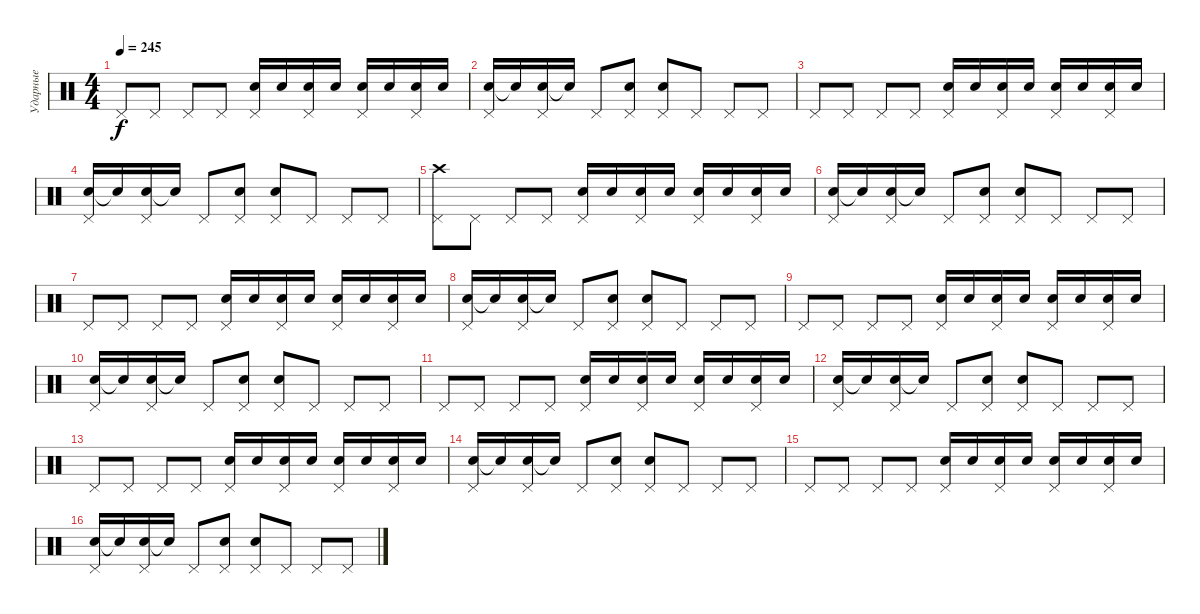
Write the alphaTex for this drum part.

\track ("Ударные" "Ударные") {instrument percussion}
\staff {score}
\articulation defaults
\ts (4 4)
\tempo 245
\clef neutral
\ks c "Pedal Hi-Hat (hit)".8{dy f} "Pedal Hi-Hat (hit)".8 "Pedal Hi-Hat (hit)".8 "Pedal Hi-Hat (hit)".8
("Electric Snare (hit)" "Pedal Hi-Hat (hit)").16 "Electric Snare (hit)".16 ("Electric Snare (hit)" "Pedal Hi-Hat (hit)").16 "Electric Snare (hit)".16 ("Electric Snare (hit)" "Pedal Hi-Hat (hit)").16 "Electric Snare (hit)".16 ("Electric Snare (hit)" "Pedal Hi-Hat (hit)").16 "Electric Snare (hit)".16 |
("Electric Snare (hit)" "Pedal Hi-Hat (hit)").16 "Snare (hit)"{t}.16 ("Electric Snare (hit)" "Pedal Hi-Hat (hit)").16 "Snare (hit)"{t}.16 "Pedal Hi-Hat (hit)".8 ("Electric Snare (hit)" "Pedal Hi-Hat (hit)").8 ("Electric Snare (hit)" "Pedal Hi-Hat (hit)").8 "Pedal Hi-Hat (hit)".8 "Pedal Hi-Hat (hit)".8 "Pedal Hi-Hat (hit)".8 |
"Pedal Hi-Hat (hit)".8 "Pedal Hi-Hat (hit)".8 "Pedal Hi-Hat (hit)".8 "Pedal Hi-Hat (hit)".8 ("Electric Snare (hit)" "Pedal Hi-Hat (hit)").16 "Electric Snare (hit)".16 ("Electric Snare (hit)" "Pedal Hi-Hat (hit)").16 "Electric Snare (hit)".16 ("Electric Snare (hit)" "Pedal Hi-Hat (hit)").16 "Electric Snare (hit)".16 ("Electric Snare (hit)" "Pedal Hi-Hat (hit)").16 "Electric Snare (hit)".16 |
("Electric Snare (hit)" "Pedal Hi-Hat (hit)").16 "Snare (hit)"{t}.16 ("Electric Snare (hit)" "Pedal Hi-Hat (hit)").16 "Snare (hit)"{t}.16 "Pedal Hi-Hat (hit)".8 ("Electric Snare (hit)" "Pedal Hi-Hat (hit)").8 ("Electric Snare (hit)" "Pedal Hi-Hat (hit)").8 "Pedal Hi-Hat (hit)".8 "Pedal Hi-Hat (hit)".8 "Pedal Hi-Hat (hit)".8 |
("Crash high (hit)" "Pedal Hi-Hat (hit)").8 "Pedal Hi-Hat (hit)".8 "Pedal Hi-Hat (hit)".8 "Pedal Hi-Hat (hit)".8 ("Electric Snare (hit)" "Pedal Hi-Hat (hit)").16 "Electric Snare (hit)".16 ("Electric Snare (hit)" "Pedal Hi-Hat (hit)").16 "Electric Snare (hit)".16 ("Electric Snare (hit)" "Pedal Hi-Hat (hit)").16 "Electric Snare (hit)".16 ("Electric Snare (hit)" "Pedal Hi-Hat (hit)").16 "Electric Snare (hit)".16 |
("Electric Snare (hit)" "Pedal Hi-Hat (hit)").16 "Snare (hit)"{t}.16 ("Electric Snare (hit)" "Pedal Hi-Hat (hit)").16 "Snare (hit)"{t}.16 "Pedal Hi-Hat (hit)".8 ("Electric Snare (hit)" "Pedal Hi-Hat (hit)").8 ("Electric Snare (hit)" "Pedal Hi-Hat (hit)").8 "Pedal Hi-Hat (hit)".8 "Pedal Hi-Hat (hit)".8 "Pedal Hi-Hat (hit)".8 |
"Pedal Hi-Hat (hit)".8 "Pedal Hi-Hat (hit)".8 "Pedal Hi-Hat (hit)".8 "Pedal Hi-Hat (hit)".8 ("Electric Snare (hit)" "Pedal Hi-Hat (hit)").16 "Electric Snare (hit)".16 ("Electric Snare (hit)" "Pedal Hi-Hat (hit)").16 "Electric Snare (hit)".16 ("Electric Snare (hit)" "Pedal Hi-Hat (hit)").16 "Electric Snare (hit)".16 ("Electric Snare (hit)" "Pedal Hi-Hat (hit)").16 "Electric Snare (hit)".16 |
("Electric Snare (hit)" "Pedal Hi-Hat (hit)").16 "Snare (hit)"{t}.16 ("Electric Snare (hit)" "Pedal Hi-Hat (hit)").16 "Snare (hit)"{t}.16 "Pedal Hi-Hat (hit)".8 ("Electric Snare (hit)" "Pedal Hi-Hat (hit)").8 ("Electric Snare (hit)" "Pedal Hi-Hat (hit)").8 "Pedal Hi-Hat (hit)".8 "Pedal Hi-Hat (hit)".8 "Pedal Hi-Hat (hit)".8 |
"Pedal Hi-Hat (hit)".8 "Pedal Hi-Hat (hit)".8 "Pedal Hi-Hat (hit)".8 "Pedal Hi-Hat (hit)".8 ("Electric Snare (hit)" "Pedal Hi-Hat (hit)").16 "Electric Snare (hit)".16 ("Electric Snare (hit)" "Pedal Hi-Hat (hit)").16 "Electric Snare (hit)".16 ("Electric Snare (hit)" "Pedal Hi-Hat (hit)").16 "Electric Snare (hit)".16 ("Electric Snare (hit)" "Pedal Hi-Hat (hit)").16 "Electric Snare (hit)".16 |
("Electric Snare (hit)" "Pedal Hi-Hat (hit)").16 "Snare (hit)"{t}.16 ("Electric Snare (hit)" "Pedal Hi-Hat (hit)").16 "Snare (hit)"{t}.16 "Pedal Hi-Hat (hit)".8 ("Electric Snare (hit)" "Pedal Hi-Hat (hit)").8 ("Electric Snare (hit)" "Pedal Hi-Hat (hit)").8 "Pedal Hi-Hat (hit)".8 "Pedal Hi-Hat (hit)".8 "Pedal Hi-Hat (hit)".8 |
"Pedal Hi-Hat (hit)".8 "Pedal Hi-Hat (hit)".8 "Pedal Hi-Hat (hit)".8 "Pedal Hi-Hat (hit)".8 ("Electric Snare (hit)" "Pedal Hi-Hat (hit)").16 "Electric Snare (hit)".16 ("Electric Snare (hit)" "Pedal Hi-Hat (hit)").16 "Electric Snare (hit)".16 ("Electric Snare (hit)" "Pedal Hi-Hat (hit)").16 "Electric Snare (hit)".16 ("Electric Snare (hit)" "Pedal Hi-Hat (hit)").16 "Electric Snare (hit)".16 |
("Electric Snare (hit)" "Pedal Hi-Hat (hit)").16 "Snare (hit)"{t}.16 ("Electric Snare (hit)" "Pedal Hi-Hat (hit)").16 "Snare (hit)"{t}.16 "Pedal Hi-Hat (hit)".8 ("Electric Snare (hit)" "Pedal Hi-Hat (hit)").8 ("Electric Snare (hit)" "Pedal Hi-Hat (hit)").8 "Pedal Hi-Hat (hit)".8 "Pedal Hi-Hat (hit)".8 "Pedal Hi-Hat (hit)".8 |
"Pedal Hi-Hat (hit)".8 "Pedal Hi-Hat (hit)".8 "Pedal Hi-Hat (hit)".8 "Pedal Hi-Hat (hit)".8 ("Electric Snare (hit)" "Pedal Hi-Hat (hit)").16 "Electric Snare (hit)".16 ("Electric Snare (hit)" "Pedal Hi-Hat (hit)").16 "Electric Snare (hit)".16 ("Electric Snare (hit)" "Pedal Hi-Hat (hit)").16 "Electric Snare (hit)".16 ("Electric Snare (hit)" "Pedal Hi-Hat (hit)").16 "Electric Snare (hit)".16 |
("Electric Snare (hit)" "Pedal Hi-Hat (hit)").16 "Snare (hit)"{t}.16 ("Electric Snare (hit)" "Pedal Hi-Hat (hit)").16 "Snare (hit)"{t}.16 "Pedal Hi-Hat (hit)".8 ("Electric Snare (hit)" "Pedal Hi-Hat (hit)").8 ("Electric Snare (hit)" "Pedal Hi-Hat (hit)").8 "Pedal Hi-Hat (hit)".8 "Pedal Hi-Hat (hit)".8 "Pedal Hi-Hat (hit)".8 |
"Pedal Hi-Hat (hit)".8 "Pedal Hi-Hat (hit)".8 "Pedal Hi-Hat (hit)".8 "Pedal Hi-Hat (hit)".8 ("Electric Snare (hit)" "Pedal Hi-Hat (hit)").16 "Electric Snare (hit)".16 ("Electric Snare (hit)" "Pedal Hi-Hat (hit)").16 "Electric Snare (hit)".16 ("Electric Snare (hit)" "Pedal Hi-Hat (hit)").16 "Electric Snare (hit)".16 ("Electric Snare (hit)" "Pedal Hi-Hat (hit)").16 "Electric Snare (hit)".16 |
("Electric Snare (hit)" "Pedal Hi-Hat (hit)").16 "Snare (hit)"{t}.16 ("Electric Snare (hit)" "Pedal Hi-Hat (hit)").16 "Snare (hit)"{t}.16 "Pedal Hi-Hat (hit)".8 ("Electric Snare (hit)" "Pedal Hi-Hat (hit)").8 ("Electric Snare (hit)" "Pedal Hi-Hat (hit)").8 "Pedal Hi-Hat (hit)".8 "Pedal Hi-Hat (hit)".8 "Pedal Hi-Hat (hit)".8
